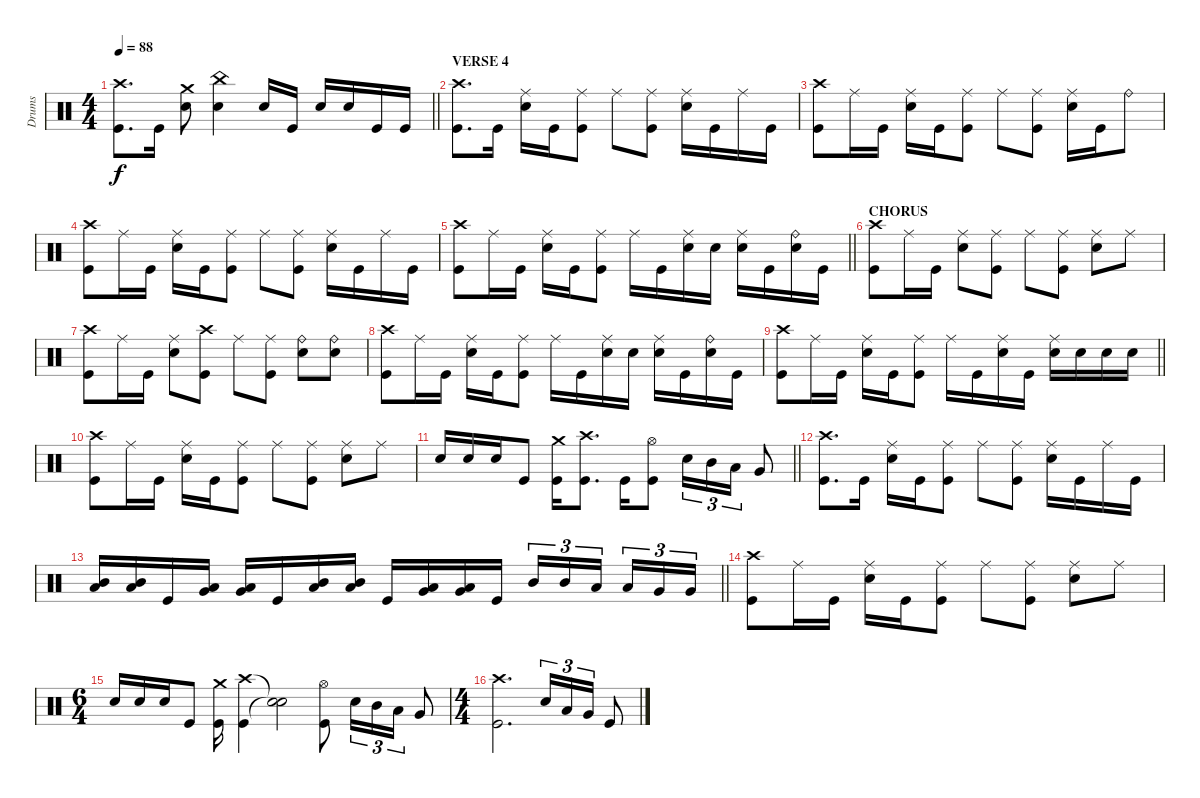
\track ("Drums" "Drums") {instrument percussion}
\staff
\articulation defaults
\ts (4 4)
\tempo 88
\clef neutral
\barLineRight lightlight
\ks c
("Crash high (hit)" "Kick (hit)").8{d dy f} "Kick (hit)".16 ("Crash medium (hit)" "Electric Snare (hit)").8 ("China (hit)" "Electric Snare (hit)").4 "Electric Snare (hit)".16 "Kick (hit)".16 "Electric Snare (hit)".16 "Electric Snare (hit)".16 "Kick (hit)".16 "Kick (hit)".16 |
\section ("" "VERSE 4")
("Crash high (hit)" "Kick (hit)").8{d} "Kick (hit)".16 ("Ride (middle)" "Electric Snare (hit)").16 "Kick (hit)".16 ("Ride (middle)" "Kick (hit)").8 "Ride (middle)".8 ("Ride (middle)" "Kick (hit)").8 ("Ride (middle)" "Electric Snare (hit)").16 "Kick (hit)".16 "Ride (middle)".16 "Kick (hit)".16 |
("Crash high (hit)" "Kick (hit)").8 "Ride (middle)".16 "Kick (hit)".16 ("Ride (middle)" "Electric Snare (hit)").16 "Kick (hit)".16 ("Ride (middle)" "Kick (hit)").8 "Ride (middle)".8 ("Ride (middle)" "Kick (hit)").8 ("Ride (middle)" "Electric Snare (hit)").16 "Kick (hit)".16 "Ride (bell)".8 |
("Crash high (hit)" "Kick (hit)").8 "Ride (middle)".16 "Kick (hit)".16 ("Ride (middle)" "Electric Snare (hit)").16 "Kick (hit)".16 ("Ride (middle)" "Kick (hit)").8 "Ride (middle)".8 ("Ride (middle)" "Kick (hit)").8 ("Ride (middle)" "Electric Snare (hit)").16 "Kick (hit)".16 "Ride (middle)".16 "Kick (hit)".16 |
\barLineRight lightlight
("Crash high (hit)" "Kick (hit)").8 "Ride (middle)".16 "Kick (hit)".16 ("Ride (middle)" "Electric Snare (hit)").16 "Kick (hit)".16 ("Ride (middle)" "Kick (hit)").8 "Ride (middle)".16 "Kick (hit)".16 ("Ride (middle)" "Electric Snare (hit)").16 "Electric Snare (hit)".16 ("Ride (middle)" "Electric Snare (hit)").16 "Kick (hit)".16 ("Ride (bell)" "Electric Snare (hit)").16 "Kick (hit)".16 |
\section ("" "CHORUS")
("Crash high (hit)" "Kick (hit)").8 "Ride (middle)".16 "Kick (hit)".16 ("Ride (middle)" "Electric Snare (hit)").8 ("Ride (middle)" "Kick (hit)").8 "Ride (middle)".8 ("Ride (middle)" "Kick (hit)").8 ("Ride (middle)" "Electric Snare (hit)").8 "Ride (middle)".8 |
("Crash high (hit)" "Kick (hit)").8 "Ride (middle)".16 "Kick (hit)".16 ("Ride (middle)" "Electric Snare (hit)").8 ("Crash high (hit)" "Kick (hit)").8 "Ride (middle)".8 ("Ride (middle)" "Kick (hit)").8 ("Ride (bell)" "Electric Snare (hit)").8 ("Ride (bell)" "Electric Snare (hit)").8 |
("Crash high (hit)" "Kick (hit)").8 "Ride (middle)".16 "Kick (hit)".16 ("Ride (middle)" "Electric Snare (hit)").16 "Kick (hit)".16 ("Ride (middle)" "Kick (hit)").8 "Ride (middle)".16 "Kick (hit)".16 ("Ride (middle)" "Electric Snare (hit)").16 "Electric Snare (hit)".16 ("Ride (middle)" "Electric Snare (hit)").16 "Kick (hit)".16 ("Ride (bell)" "Electric Snare (hit)").16 "Kick (hit)".16 |
\barLineRight lightlight
("Crash high (hit)" "Kick (hit)").8 "Ride (middle)".16 "Kick (hit)".16 ("Ride (middle)" "Electric Snare (hit)").16 "Kick (hit)".16 ("Ride (middle)" "Kick (hit)").8 "Ride (middle)".16 "Kick (hit)".16 ("Ride (middle)" "Electric Snare (hit)").16 "Kick (hit)".16 ("Ride (middle)" "Electric Snare (hit)").16 "Electric Snare (hit)".16 "Electric Snare (hit)".16 "Electric Snare (hit)".16 |
("Crash high (hit)" "Kick (hit)").8 "Ride (middle)".16 "Kick (hit)".16 ("Ride (middle)" "Electric Snare (hit)").16 "Kick (hit)".16 ("Ride (middle)" "Kick (hit)").8 "Ride (middle)".8 ("Ride (middle)" "Kick (hit)").8 ("Ride (middle)" "Electric Snare (hit)").8 "Ride (middle)".8 |
\barLineRight lightlight "Electric Snare (hit)".16 "Electric Snare (hit)".16 "Electric Snare (hit)".16 "Kick (hit)".8
("Crash medium (hit)" "Kick (hit)").16 ("Crash high (hit)" "Kick (hit)").8{d} "Kick (hit)".16 ("Hi-Hat (open)" "Kick (hit)").8 "Electric Snare (hit)".16{tu (3 2)} "Mid Tom (hit)".16{tu (3 2)} "Low Tom (hit)".16{tu (3 2)} "Very Low Tom (hit)".8 |
("Crash high (hit)" "Kick (hit)").8{d} "Kick (hit)".16 ("Ride (middle)" "Electric Snare (hit)").16 "Kick (hit)".16 ("Ride (middle)" "Kick (hit)").8 "Ride (middle)".8 ("Ride (middle)" "Kick (hit)").8 ("Ride (middle)" "Electric Snare (hit)").16 "Kick (hit)".16 "Ride (middle)".16 "Kick (hit)".16 |
\barLineRight lightlight
("Mid Tom (hit)" "Low Tom (hit)").16 ("Mid Tom (hit)" "Low Tom (hit)").16 "Kick (hit)".16 ("Low Tom (hit)" "Very Low Tom (hit)").16 ("Low Tom (hit)" "Very Low Tom (hit)").16 "Kick (hit)".16 ("Mid Tom (hit)" "Low Tom (hit)").16 ("Mid Tom (hit)" "Low Tom (hit)").16 "Kick (hit)".16 ("Low Tom (hit)" "Very Low Tom (hit)").16 ("Low Tom (hit)" "Very Low Tom (hit)").16 "Kick (hit)".16 "Mid Tom (hit)".16{tu (3 2)} "Mid Tom (hit)".16{tu (3 2)} "Low Tom (hit)".16{tu (3 2) beam splitsecondary} "Low Tom (hit)".16{tu (3 2)} "Very Low Tom (hit)".16{tu (3 2)} "Very Low Tom (hit)".16{tu (3 2)} |
("Crash high (hit)" "Kick (hit)").8 "Ride (middle)".16 "Kick (hit)".16 ("Ride (middle)" "Electric Snare (hit)").16 "Kick (hit)".16 ("Ride (middle)" "Kick (hit)").8 "Ride (middle)".8 ("Ride (middle)" "Kick (hit)").8 ("Ride (middle)" "Electric Snare (hit)").8 "Ride (middle)".8 |
\ts (6 4)
"Electric Snare (hit)".16 "Electric Snare (hit)".16 "Electric Snare (hit)".16 "Kick (hit)".8 ("Crash medium (hit)" "Kick (hit)").16 ("Crash high (hit)" "Kick (hit)").4 ("Snare (hit)"{t} "Snare (hit)"{t}).2 ("Hi-Hat (open)" "Kick (hit)").8 "Electric Snare (hit)".16{tu (3 2)} "Mid Tom (hit)".16{tu (3 2)} "Low Tom (hit)".16{tu (3 2)} "Very Low Tom (hit)".8 |
\ts (4 4)
("Crash high (hit)" "Kick (hit)").2{d} "Electric Snare (hit)".16{tu (3 2)} "Low Tom (hit)".16{tu (3 2)} "Very Low Tom (hit)".16{tu (3 2)} "Kick (hit)".8
